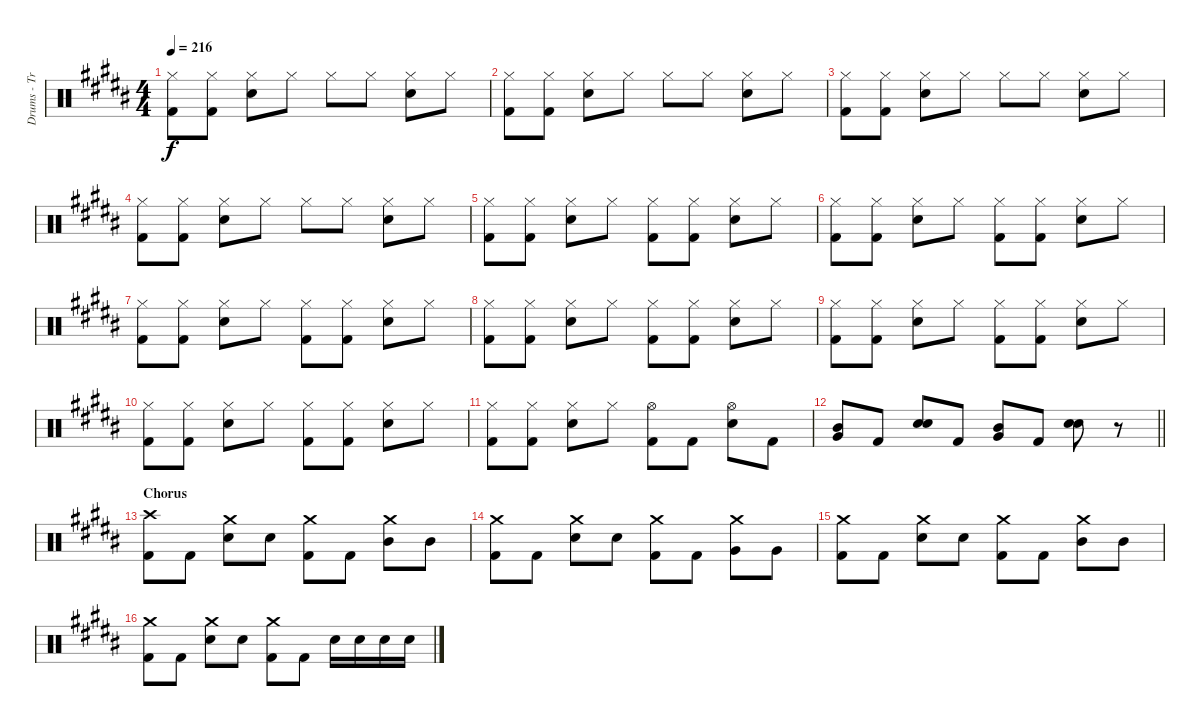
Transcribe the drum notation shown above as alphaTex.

\track ("Drums - Travis Barker" "Drums - Tr") {instrument percussion}
\staff {score}
\articulation defaults
\ts (4 4)
\tempo 216
\clef neutral
\ks b
("Kick (hit) 2" "Hi-Hat (closed)").8{dy f} ("Kick (hit) 2" "Hi-Hat (closed)").8 ("Snare (hit) 2" "Hi-Hat (closed)").8 "Hi-Hat (closed)".8 "Hi-Hat (closed)".8 "Hi-Hat (closed)".8 ("Snare (hit) 2" "Hi-Hat (closed)").8 "Hi-Hat (closed)".8 |
("Kick (hit) 2" "Hi-Hat (closed)").8 ("Kick (hit) 2" "Hi-Hat (closed)").8 ("Snare (hit) 2" "Hi-Hat (closed)").8 "Hi-Hat (closed)".8 "Hi-Hat (closed)".8 "Hi-Hat (closed)".8 ("Snare (hit) 2" "Hi-Hat (closed)").8 "Hi-Hat (closed)".8 |
("Kick (hit) 2" "Hi-Hat (closed)").8 ("Kick (hit) 2" "Hi-Hat (closed)").8 ("Snare (hit) 2" "Hi-Hat (closed)").8 "Hi-Hat (closed)".8 "Hi-Hat (closed)".8 "Hi-Hat (closed)".8 ("Snare (hit) 2" "Hi-Hat (closed)").8 "Hi-Hat (closed)".8 |
("Kick (hit) 2" "Hi-Hat (closed)").8 ("Kick (hit) 2" "Hi-Hat (closed)").8 ("Snare (hit) 2" "Hi-Hat (closed)").8 "Hi-Hat (closed)".8 "Hi-Hat (closed)".8 "Hi-Hat (closed)".8 ("Snare (hit) 2" "Hi-Hat (closed)").8 "Hi-Hat (closed)".8 |
("Kick (hit) 2" "Hi-Hat (closed)").8 ("Kick (hit) 2" "Hi-Hat (closed)").8 ("Snare (hit) 2" "Hi-Hat (closed)").8 "Hi-Hat (closed)".8 ("Kick (hit) 2" "Hi-Hat (closed)").8 ("Kick (hit) 2" "Hi-Hat (closed)").8 ("Snare (hit) 2" "Hi-Hat (closed)").8 "Hi-Hat (closed)".8 |
("Kick (hit) 2" "Hi-Hat (closed)").8 ("Kick (hit) 2" "Hi-Hat (closed)").8 ("Snare (hit) 2" "Hi-Hat (closed)").8 "Hi-Hat (closed)".8 ("Kick (hit) 2" "Hi-Hat (closed)").8 ("Kick (hit) 2" "Hi-Hat (closed)").8 ("Snare (hit) 2" "Hi-Hat (closed)").8 "Hi-Hat (closed)".8 |
("Kick (hit) 2" "Hi-Hat (closed)").8 ("Kick (hit) 2" "Hi-Hat (closed)").8 ("Snare (hit) 2" "Hi-Hat (closed)").8 "Hi-Hat (closed)".8 ("Kick (hit) 2" "Hi-Hat (closed)").8 ("Kick (hit) 2" "Hi-Hat (closed)").8 ("Snare (hit) 2" "Hi-Hat (closed)").8 "Hi-Hat (closed)".8 |
("Kick (hit) 2" "Hi-Hat (closed)").8 ("Kick (hit) 2" "Hi-Hat (closed)").8 ("Snare (hit) 2" "Hi-Hat (closed)").8 "Hi-Hat (closed)".8 ("Kick (hit) 2" "Hi-Hat (closed)").8 ("Kick (hit) 2" "Hi-Hat (closed)").8 ("Snare (hit) 2" "Hi-Hat (closed)").8 "Hi-Hat (closed)".8 |
("Kick (hit) 2" "Hi-Hat (closed)").8 ("Kick (hit) 2" "Hi-Hat (closed)").8 ("Snare (hit) 2" "Hi-Hat (closed)").8 "Hi-Hat (closed)".8 ("Kick (hit) 2" "Hi-Hat (closed)").8 ("Kick (hit) 2" "Hi-Hat (closed)").8 ("Snare (hit) 2" "Hi-Hat (closed)").8 "Hi-Hat (closed)".8 |
("Kick (hit) 2" "Hi-Hat (closed)").8 ("Kick (hit) 2" "Hi-Hat (closed)").8 ("Snare (hit) 2" "Hi-Hat (closed)").8 "Hi-Hat (closed)".8 ("Kick (hit) 2" "Hi-Hat (closed)").8 ("Kick (hit) 2" "Hi-Hat (closed)").8 ("Snare (hit) 2" "Hi-Hat (closed)").8 "Hi-Hat (closed)".8 |
("Kick (hit) 2" "Hi-Hat (closed)").8 ("Kick (hit) 2" "Hi-Hat (closed)").8 ("Snare (hit) 2" "Hi-Hat (closed)").8 "Hi-Hat (closed)".8 ("Kick (hit) 2" "Hi-Hat (open)").8 "Kick (hit) 2".8 ("Snare (hit) 2" "Hi-Hat (open)").8 "Kick (hit) 2".8 |
\barLineRight lightlight
("Mid Tom (hit)" "Very Low Tom (hit)").8 "Kick (hit) 2".8 ("Snare (hit) 2" "Snare (hit) 2").8 "Kick (hit) 2".8 ("Mid Tom (hit)" "Very Low Tom (hit)").8 "Kick (hit) 2".8 ("Snare (hit) 2" "Snare (hit) 2").8 r.8 |
\section ("" "Chorus")
("Kick (hit) 2" "Crash high (hit)").8 "Kick (hit) 2".8 ("Snare (hit) 2" "Crash medium (hit)").8 "Snare (hit) 2".8 ("Kick (hit) 2" "Crash medium (hit)").8 "Kick (hit) 2".8 ("Mid Tom (hit)" "Crash medium (hit)").8 "Mid Tom (hit)".8 |
("Kick (hit) 2" "Crash medium (hit)").8 "Kick (hit) 2".8 ("Snare (hit) 2" "Crash medium (hit)").8 "Snare (hit) 2".8 ("Kick (hit) 2" "Crash medium (hit)").8 "Kick (hit) 2".8 ("Very Low Tom (hit)" "Crash medium (hit)").8 "Very Low Tom (hit)".8 |
("Kick (hit) 2" "Crash medium (hit)").8 "Kick (hit) 2".8 ("Snare (hit) 2" "Crash medium (hit)").8 "Snare (hit) 2".8 ("Kick (hit) 2" "Crash medium (hit)").8 "Kick (hit) 2".8 ("Mid Tom (hit)" "Crash medium (hit)").8 "Mid Tom (hit)".8 |
("Kick (hit) 2" "Crash medium (hit)").8 "Kick (hit) 2".8 ("Snare (hit) 2" "Crash medium (hit)").8 "Snare (hit) 2".8 ("Kick (hit) 2" "Crash medium (hit)").8 "Kick (hit) 2".8 "Snare (hit) 2".16 "Snare (hit) 2".16 "Snare (hit) 2".16 "Snare (hit) 2".16
